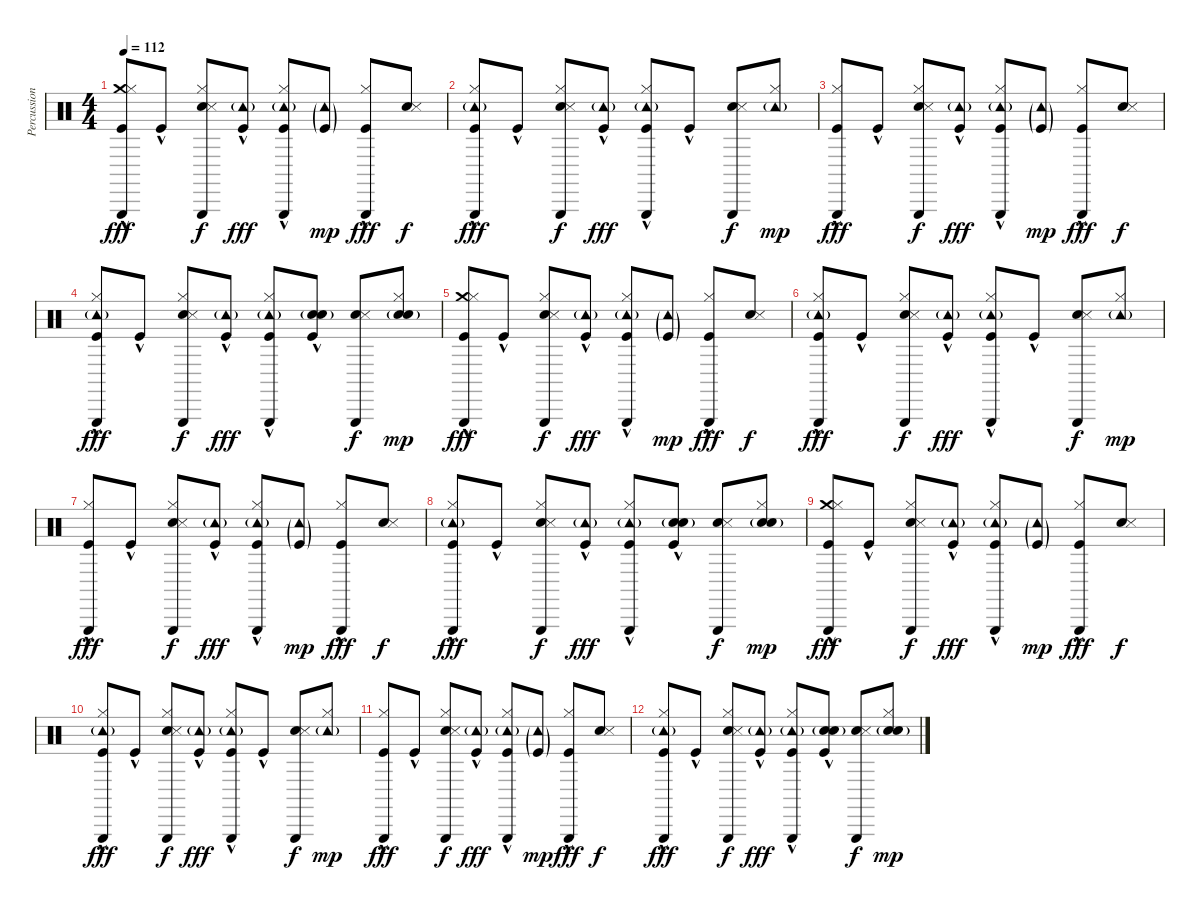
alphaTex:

\track ("Percussioni" "Percussion") {instrument percussion}
\staff {score}
\articulation defaults
\ts (4 4)
\tempo 112
\clef neutral
\ks c
("Triangle (hit)" "Crash medium (hit)" "Hi-Hat (closed)" "Kick (hit)"{hac}).8{dy fff} "Kick (hit)"{hac}.8 ("Hand Clap (hit)" "Snare (side stick) 3" "Hi-Hat (closed)" "Triangle (hit)").8{dy f} ("Tambourine (hit)"{g} "Kick (hit)"{hac}).8{dy fff} ("Triangle (hit)" "Hi-Hat (closed)" "Tambourine (hit)"{g} "Kick (hit)"{hac}).8 ("Tambourine (hit)"{g} "Kick (hit)"{g}).8{dy mp} ("Triangle (hit)" "Hi-Hat (closed)" "Kick (hit)"{hac}).8{dy fff} ("Hand Clap (hit)" "Snare (side stick) 3").8{dy f} |
("Triangle (hit)" "Hi-Hat (closed)" "Tambourine (hit)"{g} "Kick (hit)"{hac}).8{dy fff} "Kick (hit)"{hac}.8 ("Hand Clap (hit)" "Snare (side stick) 3" "Hi-Hat (closed)" "Triangle (hit)").8{dy f} ("Tambourine (hit)"{g} "Kick (hit)"{hac}).8{dy fff} ("Triangle (hit)" "Hi-Hat (closed)" "Tambourine (hit)"{g} "Kick (hit)"{hac}).8 "Kick (hit)"{hac}.8 ("Hand Clap (hit)" "Snare (side stick) 3" "Triangle (hit)").8{dy f} ("Hi-Hat (closed)" "Tambourine (hit)"{g}).8{dy mp} |
("Triangle (hit)" "Hi-Hat (closed)" "Kick (hit)"{hac}).8{dy fff} "Kick (hit)"{hac}.8 ("Hand Clap (hit)" "Snare (side stick) 3" "Hi-Hat (closed)" "Triangle (hit)").8{dy f} ("Tambourine (hit)"{g} "Kick (hit)"{hac}).8{dy fff} ("Triangle (hit)" "Hi-Hat (closed)" "Tambourine (hit)"{g} "Kick (hit)"{hac}).8 ("Tambourine (hit)"{g} "Kick (hit)"{g}).8{dy mp} ("Triangle (hit)" "Hi-Hat (closed)" "Kick (hit)"{hac}).8{dy fff} ("Hand Clap (hit)" "Snare (side stick) 3").8{dy f} |
("Triangle (hit)" "Hi-Hat (closed)" "Tambourine (hit)"{g} "Kick (hit)"{hac}).8{dy fff} "Kick (hit)"{hac}.8 ("Hand Clap (hit)" "Snare (side stick) 3" "Hi-Hat (closed)" "Triangle (hit)").8{dy f} ("Tambourine (hit)"{g} "Kick (hit)"{hac}).8{dy fff} ("Triangle (hit)" "Hi-Hat (closed)" "Tambourine (hit)"{g} "Kick (hit)"{hac}).8 ("Snare (hit) 2" "Electric Snare (hit)"{g} "Kick (hit)"{hac}).8 ("Hand Clap (hit)" "Snare (side stick) 3" "Triangle (hit)").8{dy f} ("Hi-Hat (closed)" "Snare (hit) 2" "Electric Snare (hit)"{g}).8{dy mp} |
("Triangle (hit)" "Crash medium (hit)" "Hi-Hat (closed)" "Kick (hit)"{hac}).8{dy fff} "Kick (hit)"{hac}.8 ("Hand Clap (hit)" "Snare (side stick) 3" "Hi-Hat (closed)" "Triangle (hit)").8{dy f} ("Tambourine (hit)"{g} "Kick (hit)"{hac}).8{dy fff} ("Triangle (hit)" "Hi-Hat (closed)" "Tambourine (hit)"{g} "Kick (hit)"{hac}).8 ("Tambourine (hit)"{g} "Kick (hit)"{g}).8{dy mp} ("Triangle (hit)" "Hi-Hat (closed)" "Kick (hit)"{hac}).8{dy fff} ("Hand Clap (hit)" "Snare (side stick) 3").8{dy f} |
("Triangle (hit)" "Hi-Hat (closed)" "Tambourine (hit)"{g} "Kick (hit)"{hac}).8{dy fff} "Kick (hit)"{hac}.8 ("Hand Clap (hit)" "Snare (side stick) 3" "Hi-Hat (closed)" "Triangle (hit)").8{dy f} ("Tambourine (hit)"{g} "Kick (hit)"{hac}).8{dy fff} ("Triangle (hit)" "Hi-Hat (closed)" "Tambourine (hit)"{g} "Kick (hit)"{hac}).8 "Kick (hit)"{hac}.8 ("Hand Clap (hit)" "Snare (side stick) 3" "Triangle (hit)").8{dy f} ("Hi-Hat (closed)" "Tambourine (hit)"{g}).8{dy mp} |
("Triangle (hit)" "Hi-Hat (closed)" "Kick (hit)"{hac}).8{dy fff} "Kick (hit)"{hac}.8 ("Hand Clap (hit)" "Snare (side stick) 3" "Hi-Hat (closed)" "Triangle (hit)").8{dy f} ("Tambourine (hit)"{g} "Kick (hit)"{hac}).8{dy fff} ("Triangle (hit)" "Hi-Hat (closed)" "Tambourine (hit)"{g} "Kick (hit)"{hac}).8 ("Tambourine (hit)"{g} "Kick (hit)"{g}).8{dy mp} ("Triangle (hit)" "Hi-Hat (closed)" "Kick (hit)"{hac}).8{dy fff} ("Hand Clap (hit)" "Snare (side stick) 3").8{dy f} |
("Triangle (hit)" "Hi-Hat (closed)" "Tambourine (hit)"{g} "Kick (hit)"{hac}).8{dy fff} "Kick (hit)"{hac}.8 ("Hand Clap (hit)" "Snare (side stick) 3" "Hi-Hat (closed)" "Triangle (hit)").8{dy f} ("Tambourine (hit)"{g} "Kick (hit)"{hac}).8{dy fff} ("Triangle (hit)" "Hi-Hat (closed)" "Tambourine (hit)"{g} "Kick (hit)"{hac}).8 ("Snare (hit) 2" "Electric Snare (hit)"{g} "Kick (hit)"{hac}).8 ("Hand Clap (hit)" "Snare (side stick) 3" "Triangle (hit)").8{dy f} ("Hi-Hat (closed)" "Snare (hit) 2" "Electric Snare (hit)"{g}).8{dy mp} |
("Triangle (hit)" "Crash medium (hit)" "Hi-Hat (closed)" "Kick (hit)"{hac}).8{dy fff} "Kick (hit)"{hac}.8 ("Hand Clap (hit)" "Snare (side stick) 3" "Hi-Hat (closed)" "Triangle (hit)").8{dy f} ("Tambourine (hit)"{g} "Kick (hit)"{hac}).8{dy fff} ("Triangle (hit)" "Hi-Hat (closed)" "Tambourine (hit)"{g} "Kick (hit)"{hac}).8 ("Tambourine (hit)"{g} "Kick (hit)"{g}).8{dy mp} ("Triangle (hit)" "Hi-Hat (closed)" "Kick (hit)"{hac}).8{dy fff} ("Hand Clap (hit)" "Snare (side stick) 3").8{dy f} |
("Triangle (hit)" "Hi-Hat (closed)" "Tambourine (hit)"{g} "Kick (hit)"{hac}).8{dy fff} "Kick (hit)"{hac}.8 ("Hand Clap (hit)" "Snare (side stick) 3" "Hi-Hat (closed)" "Triangle (hit)").8{dy f} ("Tambourine (hit)"{g} "Kick (hit)"{hac}).8{dy fff} ("Triangle (hit)" "Hi-Hat (closed)" "Tambourine (hit)"{g} "Kick (hit)"{hac}).8 "Kick (hit)"{hac}.8 ("Hand Clap (hit)" "Snare (side stick) 3" "Triangle (hit)").8{dy f} ("Hi-Hat (closed)" "Tambourine (hit)"{g}).8{dy mp} |
("Triangle (hit)" "Hi-Hat (closed)" "Kick (hit)"{hac}).8{dy fff} "Kick (hit)"{hac}.8 ("Hand Clap (hit)" "Snare (side stick) 3" "Hi-Hat (closed)" "Triangle (hit)").8{dy f} ("Tambourine (hit)"{g} "Kick (hit)"{hac}).8{dy fff} ("Triangle (hit)" "Hi-Hat (closed)" "Tambourine (hit)"{g} "Kick (hit)"{hac}).8 ("Tambourine (hit)"{g} "Kick (hit)"{g}).8{dy mp} ("Triangle (hit)" "Hi-Hat (closed)" "Kick (hit)"{hac}).8{dy fff} ("Hand Clap (hit)" "Snare (side stick) 3").8{dy f} |
("Triangle (hit)" "Hi-Hat (closed)" "Tambourine (hit)"{g} "Kick (hit)"{hac}).8{dy fff} "Kick (hit)"{hac}.8 ("Hand Clap (hit)" "Snare (side stick) 3" "Hi-Hat (closed)" "Triangle (hit)").8{dy f} ("Tambourine (hit)"{g} "Kick (hit)"{hac}).8{dy fff} ("Triangle (hit)" "Hi-Hat (closed)" "Tambourine (hit)"{g} "Kick (hit)"{hac}).8 ("Snare (hit) 2" "Electric Snare (hit)"{g} "Kick (hit)"{hac}).8 ("Hand Clap (hit)" "Snare (side stick) 3" "Triangle (hit)").8{dy f} ("Hi-Hat (closed)" "Snare (hit) 2" "Electric Snare (hit)"{g}).8{dy mp}
